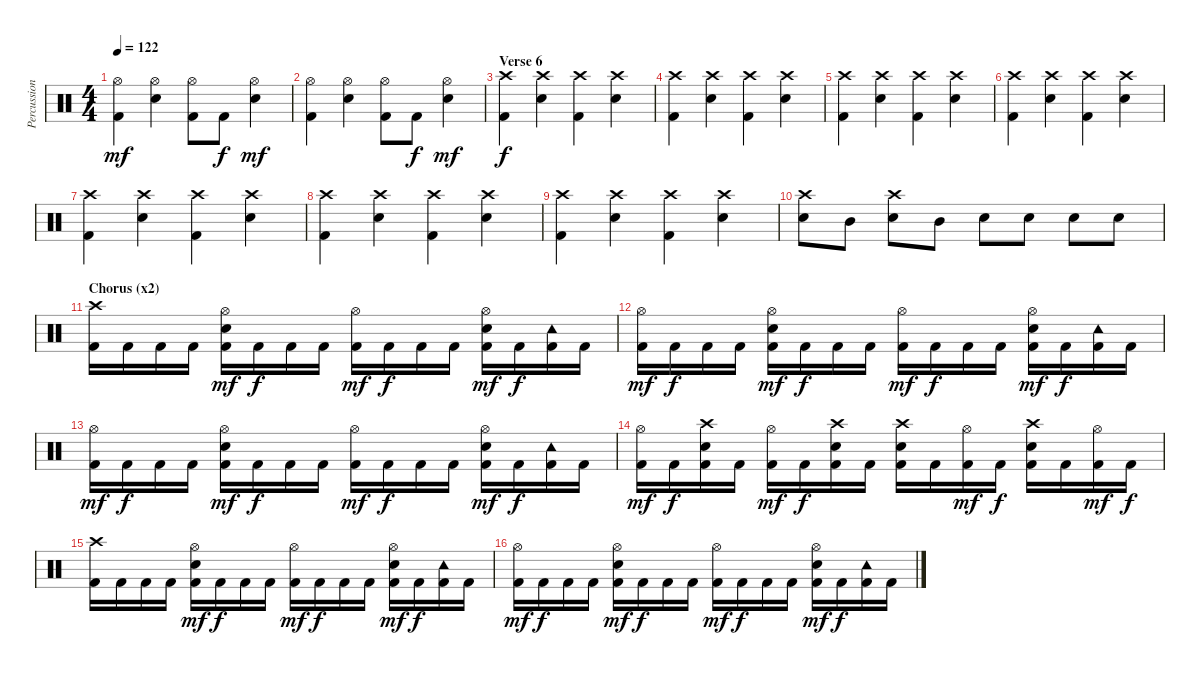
\track ("Percussion" "Percussion") {instrument percussion}
\staff {score}
\articulation defaults
\ts (4 4)
\tempo 122
\clef neutral
\ks c
("Hi-Hat (open)" "Kick (hit) 2").4{dy mf} ("Hi-Hat (open)" "Electric Snare (hit)").4 ("Hi-Hat (open)" "Kick (hit) 2").8 "Kick (hit) 2".8{dy f} ("Hi-Hat (open)" "Electric Snare (hit)").4{dy mf} |
("Hi-Hat (open)" "Kick (hit) 2").4 ("Hi-Hat (open)" "Electric Snare (hit)").4 ("Hi-Hat (open)" "Kick (hit) 2").8 "Kick (hit) 2".8{dy f} ("Hi-Hat (open)" "Electric Snare (hit)").4{dy mf} |
\section ("" "Verse 6")
("Crash high (hit)" "Kick (hit) 2").4{dy f} ("Crash high (hit)" "Electric Snare (hit)").4 ("Crash high (hit)" "Kick (hit) 2").4 ("Crash high (hit)" "Electric Snare (hit)").4 |
("Crash high (hit)" "Kick (hit) 2").4 ("Crash high (hit)" "Electric Snare (hit)").4 ("Crash high (hit)" "Kick (hit) 2").4 ("Crash high (hit)" "Electric Snare (hit)").4 |
("Crash high (hit)" "Kick (hit) 2").4 ("Crash high (hit)" "Electric Snare (hit)").4 ("Crash high (hit)" "Kick (hit) 2").4 ("Crash high (hit)" "Electric Snare (hit)").4 |
("Crash high (hit)" "Kick (hit) 2").4 ("Crash high (hit)" "Electric Snare (hit)").4 ("Crash high (hit)" "Kick (hit) 2").4 ("Crash high (hit)" "Electric Snare (hit)").4 |
("Crash high (hit)" "Kick (hit) 2").4 ("Crash high (hit)" "Electric Snare (hit)").4 ("Crash high (hit)" "Kick (hit) 2").4 ("Crash high (hit)" "Electric Snare (hit)").4 |
("Crash high (hit)" "Kick (hit) 2").4 ("Crash high (hit)" "Electric Snare (hit)").4 ("Crash high (hit)" "Kick (hit) 2").4 ("Crash high (hit)" "Electric Snare (hit)").4 |
("Crash high (hit)" "Kick (hit) 2").4 ("Crash high (hit)" "Electric Snare (hit)").4 ("Crash high (hit)" "Kick (hit) 2").4 ("Crash high (hit)" "Electric Snare (hit)").4 |
("Crash high (hit)" "Electric Snare (hit)").8 "Mid Tom (hit)".8 ("Crash high (hit)" "Electric Snare (hit)").8 "Mid Tom (hit)".8 "Electric Snare (hit)".8 "Electric Snare (hit)".8 "Electric Snare (hit)".8 "Electric Snare (hit)".8 |
\section ("" "Chorus (x2)")
("Crash high (hit)" "Kick (hit) 2").16 "Kick (hit) 2".16 "Kick (hit) 2".16 "Kick (hit) 2".16 ("Hi-Hat (open)" "Electric Snare (hit)" "Kick (hit) 2").16{dy mf} "Kick (hit) 2".16{dy f} "Kick (hit) 2".16 "Kick (hit) 2".16 ("Hi-Hat (open)" "Kick (hit) 2").16{dy mf} "Kick (hit) 2".16{dy f} "Kick (hit) 2".16 "Kick (hit) 2".16 ("Hi-Hat (open)" "Electric Snare (hit)" "Kick (hit) 2").16{dy mf} "Kick (hit) 2".16{dy f} ("Tambourine (hit)" "Kick (hit) 2").16 "Kick (hit) 2".16 |
("Hi-Hat (open)" "Kick (hit) 2").16{dy mf} "Kick (hit) 2".16{dy f} "Kick (hit) 2".16 "Kick (hit) 2".16 ("Hi-Hat (open)" "Electric Snare (hit)" "Kick (hit) 2").16{dy mf} "Kick (hit) 2".16{dy f} "Kick (hit) 2".16 "Kick (hit) 2".16 ("Hi-Hat (open)" "Kick (hit) 2").16{dy mf} "Kick (hit) 2".16{dy f} "Kick (hit) 2".16 "Kick (hit) 2".16 ("Hi-Hat (open)" "Electric Snare (hit)" "Kick (hit) 2").16{dy mf} "Kick (hit) 2".16{dy f} ("Tambourine (hit)" "Kick (hit) 2").16 "Kick (hit) 2".16 |
("Hi-Hat (open)" "Kick (hit) 2").16{dy mf} "Kick (hit) 2".16{dy f} "Kick (hit) 2".16 "Kick (hit) 2".16 ("Hi-Hat (open)" "Electric Snare (hit)" "Kick (hit) 2").16{dy mf} "Kick (hit) 2".16{dy f} "Kick (hit) 2".16 "Kick (hit) 2".16 ("Hi-Hat (open)" "Kick (hit) 2").16{dy mf} "Kick (hit) 2".16{dy f} "Kick (hit) 2".16 "Kick (hit) 2".16 ("Hi-Hat (open)" "Electric Snare (hit)" "Kick (hit) 2").16{dy mf} "Kick (hit) 2".16{dy f} ("Tambourine (hit)" "Kick (hit) 2").16 "Kick (hit) 2".16 |
("Hi-Hat (open)" "Kick (hit) 2").16{dy mf} "Kick (hit) 2".16{dy f} ("Crash high (hit)" "Electric Snare (hit)" "Kick (hit) 2").16 "Kick (hit) 2".16 ("Hi-Hat (open)" "Kick (hit) 2").16{dy mf} "Kick (hit) 2".16{dy f} ("Crash high (hit)" "Electric Snare (hit)" "Kick (hit) 2").16 "Kick (hit) 2".16 ("Crash high (hit)" "Electric Snare (hit)" "Kick (hit) 2").16 "Kick (hit) 2".16 ("Hi-Hat (open)" "Kick (hit) 2").16{dy mf} "Kick (hit) 2".16{dy f} ("Crash high (hit)" "Electric Snare (hit)" "Kick (hit) 2").16 "Kick (hit) 2".16 ("Hi-Hat (open)" "Kick (hit) 2").16{dy mf} "Kick (hit) 2".16{dy f} |
("Crash high (hit)" "Kick (hit) 2").16 "Kick (hit) 2".16 "Kick (hit) 2".16 "Kick (hit) 2".16 ("Hi-Hat (open)" "Electric Snare (hit)" "Kick (hit) 2").16{dy mf} "Kick (hit) 2".16{dy f} "Kick (hit) 2".16 "Kick (hit) 2".16 ("Hi-Hat (open)" "Kick (hit) 2").16{dy mf} "Kick (hit) 2".16{dy f} "Kick (hit) 2".16 "Kick (hit) 2".16 ("Hi-Hat (open)" "Electric Snare (hit)" "Kick (hit) 2").16{dy mf} "Kick (hit) 2".16{dy f} ("Tambourine (hit)" "Kick (hit) 2").16 "Kick (hit) 2".16 |
("Hi-Hat (open)" "Kick (hit) 2").16{dy mf} "Kick (hit) 2".16{dy f} "Kick (hit) 2".16 "Kick (hit) 2".16 ("Hi-Hat (open)" "Electric Snare (hit)" "Kick (hit) 2").16{dy mf} "Kick (hit) 2".16{dy f} "Kick (hit) 2".16 "Kick (hit) 2".16 ("Hi-Hat (open)" "Kick (hit) 2").16{dy mf} "Kick (hit) 2".16{dy f} "Kick (hit) 2".16 "Kick (hit) 2".16 ("Hi-Hat (open)" "Electric Snare (hit)" "Kick (hit) 2").16{dy mf} "Kick (hit) 2".16{dy f} ("Tambourine (hit)" "Kick (hit) 2").16 "Kick (hit) 2".16
